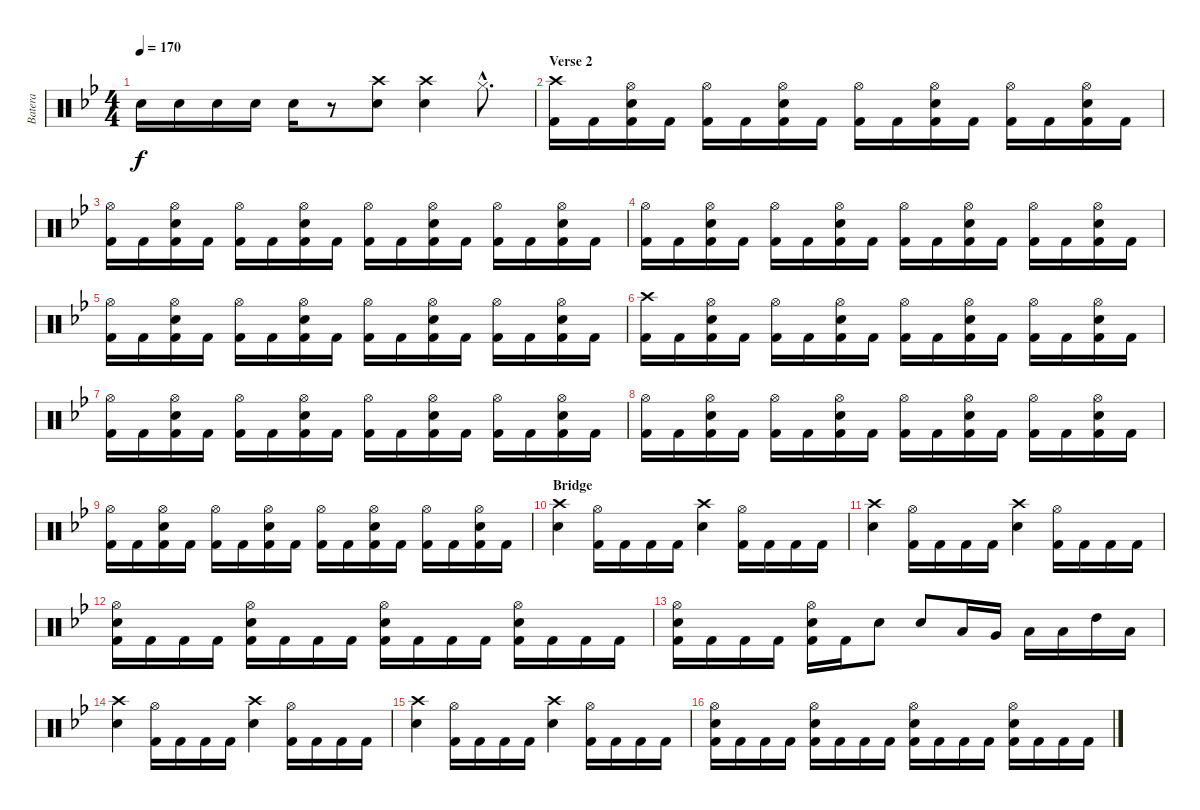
\track ("Batera" "Batera") {instrument percussion}
\staff {score}
\articulation defaults
\ts (4 4)
\tempo 170
\clef neutral
\ks bb "Electric Snare (hit)".16{dy f} "Electric Snare (hit)".16 "Electric Snare (hit)".16 "Electric Snare (hit)".16 "Electric Snare (hit)".16
r.8 ("Crash high (hit)" "Electric Snare (hit)").8 ("Crash high (hit)" "Electric Snare (hit)").4 "Hi-Hat (closed)"{hac}.8{d} |
\section ("" "Verse 2")
("Crash high (hit)" "Kick (hit) 2").16 "Kick (hit) 2".16 ("Hi-Hat (open)" "Electric Snare (hit)" "Kick (hit) 2").16 "Kick (hit) 2".16 ("Hi-Hat (open)" "Kick (hit) 2").16 "Kick (hit) 2".16 ("Hi-Hat (open)" "Electric Snare (hit)" "Kick (hit) 2").16 "Kick (hit) 2".16 ("Hi-Hat (open)" "Kick (hit) 2").16 "Kick (hit) 2".16 ("Hi-Hat (open)" "Electric Snare (hit)" "Kick (hit) 2").16 "Kick (hit) 2".16 ("Hi-Hat (open)" "Kick (hit) 2").16 "Kick (hit) 2".16 ("Hi-Hat (open)" "Electric Snare (hit)" "Kick (hit) 2").16 "Kick (hit) 2".16 |
("Hi-Hat (open)" "Kick (hit) 2").16 "Kick (hit) 2".16 ("Hi-Hat (open)" "Electric Snare (hit)" "Kick (hit) 2").16 "Kick (hit) 2".16 ("Hi-Hat (open)" "Kick (hit) 2").16 "Kick (hit) 2".16 ("Hi-Hat (open)" "Electric Snare (hit)" "Kick (hit) 2").16 "Kick (hit) 2".16 ("Hi-Hat (open)" "Kick (hit) 2").16 "Kick (hit) 2".16 ("Hi-Hat (open)" "Electric Snare (hit)" "Kick (hit) 2").16 "Kick (hit) 2".16 ("Hi-Hat (open)" "Kick (hit) 2").16 "Kick (hit) 2".16 ("Hi-Hat (open)" "Electric Snare (hit)" "Kick (hit) 2").16 "Kick (hit) 2".16 |
("Hi-Hat (open)" "Kick (hit) 2").16 "Kick (hit) 2".16 ("Hi-Hat (open)" "Electric Snare (hit)" "Kick (hit) 2").16 "Kick (hit) 2".16 ("Hi-Hat (open)" "Kick (hit) 2").16 "Kick (hit) 2".16 ("Hi-Hat (open)" "Electric Snare (hit)" "Kick (hit) 2").16 "Kick (hit) 2".16 ("Hi-Hat (open)" "Kick (hit) 2").16 "Kick (hit) 2".16 ("Hi-Hat (open)" "Electric Snare (hit)" "Kick (hit) 2").16 "Kick (hit) 2".16 ("Hi-Hat (open)" "Kick (hit) 2").16 "Kick (hit) 2".16 ("Hi-Hat (open)" "Electric Snare (hit)" "Kick (hit) 2").16 "Kick (hit) 2".16 |
("Hi-Hat (open)" "Kick (hit) 2").16 "Kick (hit) 2".16 ("Hi-Hat (open)" "Electric Snare (hit)" "Kick (hit) 2").16 "Kick (hit) 2".16 ("Hi-Hat (open)" "Kick (hit) 2").16 "Kick (hit) 2".16 ("Hi-Hat (open)" "Electric Snare (hit)" "Kick (hit) 2").16 "Kick (hit) 2".16 ("Hi-Hat (open)" "Kick (hit) 2").16 "Kick (hit) 2".16 ("Hi-Hat (open)" "Electric Snare (hit)" "Kick (hit) 2").16 "Kick (hit) 2".16 ("Hi-Hat (open)" "Kick (hit) 2").16 "Kick (hit) 2".16 ("Hi-Hat (open)" "Electric Snare (hit)" "Kick (hit) 2").16 "Kick (hit) 2".16 |
("Crash high (hit)" "Kick (hit) 2").16 "Kick (hit) 2".16 ("Hi-Hat (open)" "Electric Snare (hit)" "Kick (hit) 2").16 "Kick (hit) 2".16 ("Hi-Hat (open)" "Kick (hit) 2").16 "Kick (hit) 2".16 ("Hi-Hat (open)" "Electric Snare (hit)" "Kick (hit) 2").16 "Kick (hit) 2".16 ("Hi-Hat (open)" "Kick (hit) 2").16 "Kick (hit) 2".16 ("Hi-Hat (open)" "Electric Snare (hit)" "Kick (hit) 2").16 "Kick (hit) 2".16 ("Hi-Hat (open)" "Kick (hit) 2").16 "Kick (hit) 2".16 ("Hi-Hat (open)" "Electric Snare (hit)" "Kick (hit) 2").16 "Kick (hit) 2".16 |
("Hi-Hat (open)" "Kick (hit) 2").16 "Kick (hit) 2".16 ("Hi-Hat (open)" "Electric Snare (hit)" "Kick (hit) 2").16 "Kick (hit) 2".16 ("Hi-Hat (open)" "Kick (hit) 2").16 "Kick (hit) 2".16 ("Hi-Hat (open)" "Electric Snare (hit)" "Kick (hit) 2").16 "Kick (hit) 2".16 ("Hi-Hat (open)" "Kick (hit) 2").16 "Kick (hit) 2".16 ("Hi-Hat (open)" "Electric Snare (hit)" "Kick (hit) 2").16 "Kick (hit) 2".16 ("Hi-Hat (open)" "Kick (hit) 2").16 "Kick (hit) 2".16 ("Hi-Hat (open)" "Electric Snare (hit)" "Kick (hit) 2").16 "Kick (hit) 2".16 |
("Hi-Hat (open)" "Kick (hit) 2").16 "Kick (hit) 2".16 ("Hi-Hat (open)" "Electric Snare (hit)" "Kick (hit) 2").16 "Kick (hit) 2".16 ("Hi-Hat (open)" "Kick (hit) 2").16 "Kick (hit) 2".16 ("Hi-Hat (open)" "Electric Snare (hit)" "Kick (hit) 2").16 "Kick (hit) 2".16 ("Hi-Hat (open)" "Kick (hit) 2").16 "Kick (hit) 2".16 ("Hi-Hat (open)" "Electric Snare (hit)" "Kick (hit) 2").16 "Kick (hit) 2".16 ("Hi-Hat (open)" "Kick (hit) 2").16 "Kick (hit) 2".16 ("Hi-Hat (open)" "Electric Snare (hit)" "Kick (hit) 2").16 "Kick (hit) 2".16 |
("Hi-Hat (open)" "Kick (hit) 2").16 "Kick (hit) 2".16 ("Hi-Hat (open)" "Electric Snare (hit)" "Kick (hit) 2").16 "Kick (hit) 2".16 ("Hi-Hat (open)" "Kick (hit) 2").16 "Kick (hit) 2".16 ("Hi-Hat (open)" "Electric Snare (hit)" "Kick (hit) 2").16 "Kick (hit) 2".16 ("Hi-Hat (open)" "Kick (hit) 2").16 "Kick (hit) 2".16 ("Hi-Hat (open)" "Electric Snare (hit)" "Kick (hit) 2").16 "Kick (hit) 2".16 ("Hi-Hat (open)" "Kick (hit) 2").16 "Kick (hit) 2".16 ("Hi-Hat (open)" "Electric Snare (hit)" "Kick (hit) 2").16 "Kick (hit) 2".16 |
\section ("" "Bridge")
("Crash high (hit)" "Electric Snare (hit)").4 ("Hi-Hat (open)" "Kick (hit) 2").16 "Kick (hit) 2".16 "Kick (hit) 2".16 "Kick (hit) 2".16 ("Crash high (hit)" "Electric Snare (hit)").4 ("Hi-Hat (open)" "Kick (hit) 2").16 "Kick (hit) 2".16 "Kick (hit) 2".16 "Kick (hit) 2".16 |
("Crash high (hit)" "Electric Snare (hit)").4 ("Hi-Hat (open)" "Kick (hit) 2").16 "Kick (hit) 2".16 "Kick (hit) 2".16 "Kick (hit) 2".16 ("Crash high (hit)" "Electric Snare (hit)").4 ("Hi-Hat (open)" "Kick (hit) 2").16 "Kick (hit) 2".16 "Kick (hit) 2".16 "Kick (hit) 2".16 |
("Hi-Hat (open)" "Electric Snare (hit)" "Kick (hit) 2").16 "Kick (hit) 2".16 "Kick (hit) 2".16 "Kick (hit) 2".16 ("Hi-Hat (open)" "Electric Snare (hit)" "Kick (hit) 2").16 "Kick (hit) 2".16 "Kick (hit) 2".16 "Kick (hit) 2".16 ("Hi-Hat (open)" "Electric Snare (hit)" "Kick (hit) 2").16 "Kick (hit) 2".16 "Kick (hit) 2".16 "Kick (hit) 2".16 ("Hi-Hat (open)" "Electric Snare (hit)" "Kick (hit) 2").16 "Kick (hit) 2".16 "Kick (hit) 2".16 "Kick (hit) 2".16 |
("Hi-Hat (open)" "Electric Snare (hit)" "Kick (hit) 2").16 "Kick (hit) 2".16 "Kick (hit) 2".16 "Kick (hit) 2".16 ("Hi-Hat (open)" "Electric Snare (hit)" "Kick (hit) 2").16 "Kick (hit) 2".16 "Electric Snare (hit)".8 "Electric Snare (hit)".8 "Low Floor Tom (hit)".16 "Very Low Tom (hit)".16 "Low Floor Tom (hit)".16 "Low Tom (hit)".16 "High Tom (hit)".16 "Low Floor Tom (hit)".16 |
("Crash high (hit)" "Electric Snare (hit)").4 ("Hi-Hat (open)" "Kick (hit) 2").16 "Kick (hit) 2".16 "Kick (hit) 2".16 "Kick (hit) 2".16 ("Crash high (hit)" "Electric Snare (hit)").4 ("Hi-Hat (open)" "Kick (hit) 2").16 "Kick (hit) 2".16 "Kick (hit) 2".16 "Kick (hit) 2".16 |
("Crash high (hit)" "Electric Snare (hit)").4 ("Hi-Hat (open)" "Kick (hit) 2").16 "Kick (hit) 2".16 "Kick (hit) 2".16 "Kick (hit) 2".16 ("Crash high (hit)" "Electric Snare (hit)").4 ("Hi-Hat (open)" "Kick (hit) 2").16 "Kick (hit) 2".16 "Kick (hit) 2".16 "Kick (hit) 2".16 |
("Hi-Hat (open)" "Electric Snare (hit)" "Kick (hit) 2").16 "Kick (hit) 2".16 "Kick (hit) 2".16 "Kick (hit) 2".16 ("Hi-Hat (open)" "Electric Snare (hit)" "Kick (hit) 2").16 "Kick (hit) 2".16 "Kick (hit) 2".16 "Kick (hit) 2".16 ("Hi-Hat (open)" "Electric Snare (hit)" "Kick (hit) 2").16 "Kick (hit) 2".16 "Kick (hit) 2".16 "Kick (hit) 2".16 ("Hi-Hat (open)" "Electric Snare (hit)" "Kick (hit) 2").16 "Kick (hit) 2".16 "Kick (hit) 2".16 "Kick (hit) 2".16
